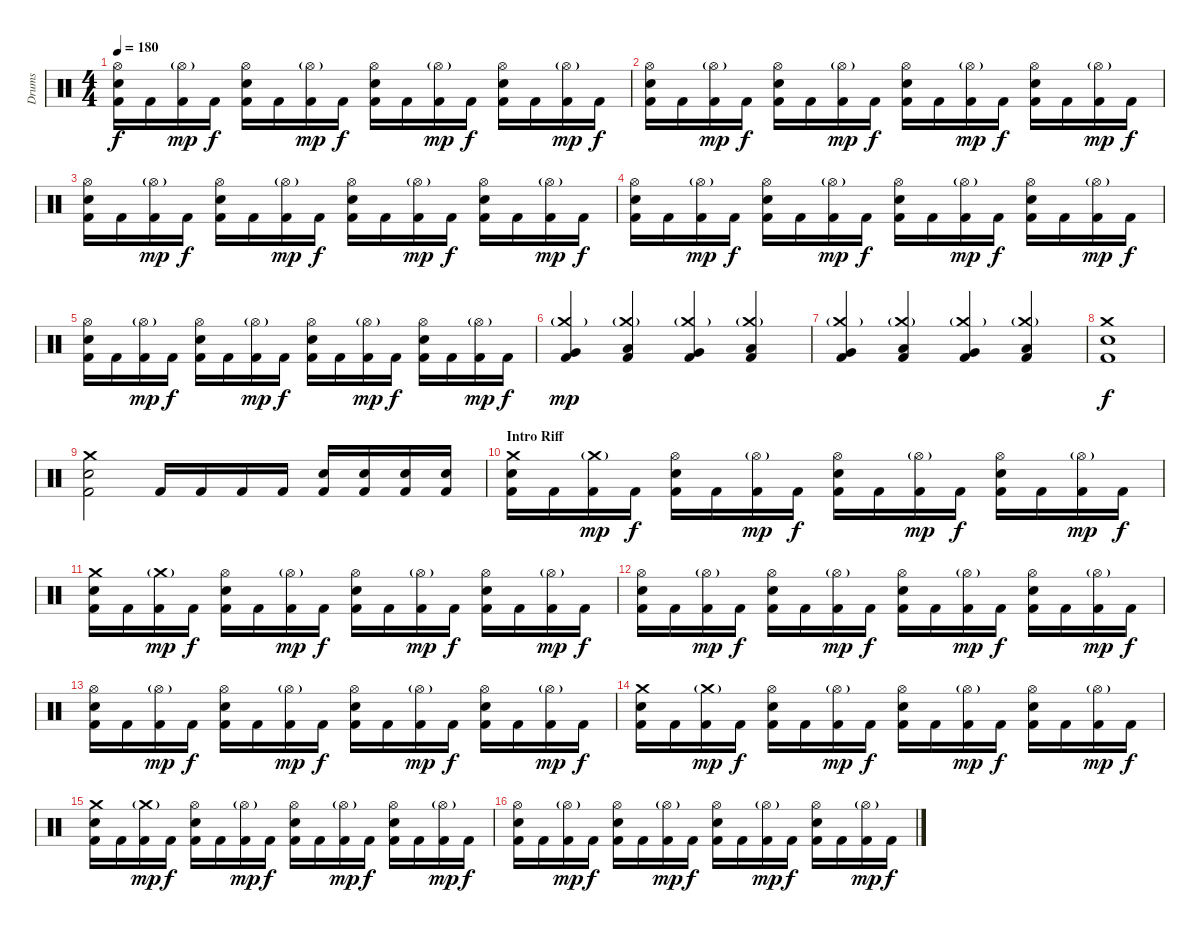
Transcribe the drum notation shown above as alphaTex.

\track ("Drums" "Drums") {instrument percussion}
\staff {score}
\articulation defaults
\ts (4 4)
\tempo 180
\clef neutral
\ks c
("Hi-Hat (open)" "Electric Snare (hit)" "Kick (hit) 2").16{dy f} "Kick (hit) 2".16 ("Hi-Hat (open)"{g} "Kick (hit) 2").16{dy mp} "Kick (hit) 2".16{dy f} ("Hi-Hat (open)" "Electric Snare (hit)" "Kick (hit) 2").16 "Kick (hit) 2".16 ("Hi-Hat (open)"{g} "Kick (hit) 2").16{dy mp} "Kick (hit) 2".16{dy f} ("Hi-Hat (open)" "Electric Snare (hit)" "Kick (hit) 2").16 "Kick (hit) 2".16 ("Hi-Hat (open)"{g} "Kick (hit) 2").16{dy mp} "Kick (hit) 2".16{dy f} ("Hi-Hat (open)" "Electric Snare (hit)" "Kick (hit) 2").16 "Kick (hit) 2".16 ("Hi-Hat (open)"{g} "Kick (hit) 2").16{dy mp} "Kick (hit) 2".16{dy f} |
("Hi-Hat (open)" "Electric Snare (hit)" "Kick (hit) 2").16 "Kick (hit) 2".16 ("Hi-Hat (open)"{g} "Kick (hit) 2").16{dy mp} "Kick (hit) 2".16{dy f} ("Hi-Hat (open)" "Electric Snare (hit)" "Kick (hit) 2").16 "Kick (hit) 2".16 ("Hi-Hat (open)"{g} "Kick (hit) 2").16{dy mp} "Kick (hit) 2".16{dy f} ("Hi-Hat (open)" "Electric Snare (hit)" "Kick (hit) 2").16 "Kick (hit) 2".16 ("Hi-Hat (open)"{g} "Kick (hit) 2").16{dy mp} "Kick (hit) 2".16{dy f} ("Hi-Hat (open)" "Electric Snare (hit)" "Kick (hit) 2").16 "Kick (hit) 2".16 ("Hi-Hat (open)"{g} "Kick (hit) 2").16{dy mp} "Kick (hit) 2".16{dy f} |
("Hi-Hat (open)" "Electric Snare (hit)" "Kick (hit) 2").16 "Kick (hit) 2".16 ("Hi-Hat (open)"{g} "Kick (hit) 2").16{dy mp} "Kick (hit) 2".16{dy f} ("Hi-Hat (open)" "Electric Snare (hit)" "Kick (hit) 2").16 "Kick (hit) 2".16 ("Hi-Hat (open)"{g} "Kick (hit) 2").16{dy mp} "Kick (hit) 2".16{dy f} ("Hi-Hat (open)" "Electric Snare (hit)" "Kick (hit) 2").16 "Kick (hit) 2".16 ("Hi-Hat (open)"{g} "Kick (hit) 2").16{dy mp} "Kick (hit) 2".16{dy f} ("Hi-Hat (open)" "Electric Snare (hit)" "Kick (hit) 2").16 "Kick (hit) 2".16 ("Hi-Hat (open)"{g} "Kick (hit) 2").16{dy mp} "Kick (hit) 2".16{dy f} |
("Hi-Hat (open)" "Electric Snare (hit)" "Kick (hit) 2").16 "Kick (hit) 2".16 ("Hi-Hat (open)"{g} "Kick (hit) 2").16{dy mp} "Kick (hit) 2".16{dy f} ("Hi-Hat (open)" "Electric Snare (hit)" "Kick (hit) 2").16 "Kick (hit) 2".16 ("Hi-Hat (open)"{g} "Kick (hit) 2").16{dy mp} "Kick (hit) 2".16{dy f} ("Hi-Hat (open)" "Electric Snare (hit)" "Kick (hit) 2").16 "Kick (hit) 2".16 ("Hi-Hat (open)"{g} "Kick (hit) 2").16{dy mp} "Kick (hit) 2".16{dy f} ("Hi-Hat (open)" "Electric Snare (hit)" "Kick (hit) 2").16 "Kick (hit) 2".16 ("Hi-Hat (open)"{g} "Kick (hit) 2").16{dy mp} "Kick (hit) 2".16{dy f} |
("Hi-Hat (open)" "Electric Snare (hit)" "Kick (hit) 2").16 "Kick (hit) 2".16 ("Hi-Hat (open)"{g} "Kick (hit) 2").16{dy mp} "Kick (hit) 2".16{dy f} ("Hi-Hat (open)" "Electric Snare (hit)" "Kick (hit) 2").16 "Kick (hit) 2".16 ("Hi-Hat (open)"{g} "Kick (hit) 2").16{dy mp} "Kick (hit) 2".16{dy f} ("Hi-Hat (open)" "Electric Snare (hit)" "Kick (hit) 2").16 "Kick (hit) 2".16 ("Hi-Hat (open)"{g} "Kick (hit) 2").16{dy mp} "Kick (hit) 2".16{dy f} ("Hi-Hat (open)" "Electric Snare (hit)" "Kick (hit) 2").16 "Kick (hit) 2".16 ("Hi-Hat (open)"{g} "Kick (hit) 2").16{dy mp} "Kick (hit) 2".16{dy f} |
("Crash medium (hit)"{g} "Very Low Tom (hit)" "Kick (hit) 2").4{dy mp} ("Crash medium (hit)"{g} "Low Floor Tom (hit)" "Kick (hit) 2").4 ("Crash medium (hit)"{g} "Very Low Tom (hit)" "Kick (hit) 2").4 ("Crash medium (hit)"{g} "Low Floor Tom (hit)" "Kick (hit) 2").4 |
("Crash medium (hit)"{g} "Very Low Tom (hit)" "Kick (hit) 2").4 ("Crash medium (hit)"{g} "Low Floor Tom (hit)" "Kick (hit) 2").4 ("Crash medium (hit)"{g} "Very Low Tom (hit)" "Kick (hit) 2").4 ("Crash medium (hit)"{g} "Low Floor Tom (hit)" "Kick (hit) 2").4 |
("Crash medium (hit)" "Electric Snare (hit)" "Kick (hit) 2").1{dy f} |
("Crash medium (hit)" "Electric Snare (hit)" "Kick (hit) 2").2 "Kick (hit) 2".16 "Kick (hit) 2".16 "Kick (hit) 2".16 "Kick (hit) 2".16 ("Electric Snare (hit)" "Kick (hit) 2").16 ("Electric Snare (hit)" "Kick (hit) 2").16 ("Electric Snare (hit)" "Kick (hit) 2").16 ("Electric Snare (hit)" "Kick (hit) 2").16 |
\section ("" "Intro Riff")
("Crash medium (hit)" "Electric Snare (hit)" "Kick (hit) 2").16 "Kick (hit) 2".16 ("Crash medium (hit)"{g} "Kick (hit) 2").16{dy mp} "Kick (hit) 2".16{dy f} ("Hi-Hat (open)" "Electric Snare (hit)" "Kick (hit) 2").16 "Kick (hit) 2".16 ("Hi-Hat (open)"{g} "Kick (hit) 2").16{dy mp} "Kick (hit) 2".16{dy f} ("Hi-Hat (open)" "Electric Snare (hit)" "Kick (hit) 2").16 "Kick (hit) 2".16 ("Hi-Hat (open)"{g} "Kick (hit) 2").16{dy mp} "Kick (hit) 2".16{dy f} ("Hi-Hat (open)" "Electric Snare (hit)" "Kick (hit) 2").16 "Kick (hit) 2".16 ("Hi-Hat (open)"{g} "Kick (hit) 2").16{dy mp} "Kick (hit) 2".16{dy f} |
("Crash medium (hit)" "Electric Snare (hit)" "Kick (hit) 2").16 "Kick (hit) 2".16 ("Crash medium (hit)"{g} "Kick (hit) 2").16{dy mp} "Kick (hit) 2".16{dy f} ("Hi-Hat (open)" "Electric Snare (hit)" "Kick (hit) 2").16 "Kick (hit) 2".16 ("Hi-Hat (open)"{g} "Kick (hit) 2").16{dy mp} "Kick (hit) 2".16{dy f} ("Hi-Hat (open)" "Electric Snare (hit)" "Kick (hit) 2").16 "Kick (hit) 2".16 ("Hi-Hat (open)"{g} "Kick (hit) 2").16{dy mp} "Kick (hit) 2".16{dy f} ("Hi-Hat (open)" "Electric Snare (hit)" "Kick (hit) 2").16 "Kick (hit) 2".16 ("Hi-Hat (open)"{g} "Kick (hit) 2").16{dy mp} "Kick (hit) 2".16{dy f} |
("Hi-Hat (open)" "Electric Snare (hit)" "Kick (hit) 2").16 "Kick (hit) 2".16 ("Hi-Hat (open)"{g} "Kick (hit) 2").16{dy mp} "Kick (hit) 2".16{dy f} ("Hi-Hat (open)" "Electric Snare (hit)" "Kick (hit) 2").16 "Kick (hit) 2".16 ("Hi-Hat (open)"{g} "Kick (hit) 2").16{dy mp} "Kick (hit) 2".16{dy f} ("Hi-Hat (open)" "Electric Snare (hit)" "Kick (hit) 2").16 "Kick (hit) 2".16 ("Hi-Hat (open)"{g} "Kick (hit) 2").16{dy mp} "Kick (hit) 2".16{dy f} ("Hi-Hat (open)" "Electric Snare (hit)" "Kick (hit) 2").16 "Kick (hit) 2".16 ("Hi-Hat (open)"{g} "Kick (hit) 2").16{dy mp} "Kick (hit) 2".16{dy f} |
("Hi-Hat (open)" "Electric Snare (hit)" "Kick (hit) 2").16 "Kick (hit) 2".16 ("Hi-Hat (open)"{g} "Kick (hit) 2").16{dy mp} "Kick (hit) 2".16{dy f} ("Hi-Hat (open)" "Electric Snare (hit)" "Kick (hit) 2").16 "Kick (hit) 2".16 ("Hi-Hat (open)"{g} "Kick (hit) 2").16{dy mp} "Kick (hit) 2".16{dy f} ("Hi-Hat (open)" "Electric Snare (hit)" "Kick (hit) 2").16 "Kick (hit) 2".16 ("Hi-Hat (open)"{g} "Kick (hit) 2").16{dy mp} "Kick (hit) 2".16{dy f} ("Hi-Hat (open)" "Electric Snare (hit)" "Kick (hit) 2").16 "Kick (hit) 2".16 ("Hi-Hat (open)"{g} "Kick (hit) 2").16{dy mp} "Kick (hit) 2".16{dy f} |
("Crash medium (hit)" "Electric Snare (hit)" "Kick (hit) 2").16 "Kick (hit) 2".16 ("Crash medium (hit)"{g} "Kick (hit) 2").16{dy mp} "Kick (hit) 2".16{dy f} ("Hi-Hat (open)" "Electric Snare (hit)" "Kick (hit) 2").16 "Kick (hit) 2".16 ("Hi-Hat (open)"{g} "Kick (hit) 2").16{dy mp} "Kick (hit) 2".16{dy f} ("Hi-Hat (open)" "Electric Snare (hit)" "Kick (hit) 2").16 "Kick (hit) 2".16 ("Hi-Hat (open)"{g} "Kick (hit) 2").16{dy mp} "Kick (hit) 2".16{dy f} ("Hi-Hat (open)" "Electric Snare (hit)" "Kick (hit) 2").16 "Kick (hit) 2".16 ("Hi-Hat (open)"{g} "Kick (hit) 2").16{dy mp} "Kick (hit) 2".16{dy f} |
("Crash medium (hit)" "Electric Snare (hit)" "Kick (hit) 2").16 "Kick (hit) 2".16 ("Crash medium (hit)"{g} "Kick (hit) 2").16{dy mp} "Kick (hit) 2".16{dy f} ("Hi-Hat (open)" "Electric Snare (hit)" "Kick (hit) 2").16 "Kick (hit) 2".16 ("Hi-Hat (open)"{g} "Kick (hit) 2").16{dy mp} "Kick (hit) 2".16{dy f} ("Hi-Hat (open)" "Electric Snare (hit)" "Kick (hit) 2").16 "Kick (hit) 2".16 ("Hi-Hat (open)"{g} "Kick (hit) 2").16{dy mp} "Kick (hit) 2".16{dy f} ("Hi-Hat (open)" "Electric Snare (hit)" "Kick (hit) 2").16 "Kick (hit) 2".16 ("Hi-Hat (open)"{g} "Kick (hit) 2").16{dy mp} "Kick (hit) 2".16{dy f} |
("Hi-Hat (open)" "Electric Snare (hit)" "Kick (hit) 2").16 "Kick (hit) 2".16 ("Hi-Hat (open)"{g} "Kick (hit) 2").16{dy mp} "Kick (hit) 2".16{dy f} ("Hi-Hat (open)" "Electric Snare (hit)" "Kick (hit) 2").16 "Kick (hit) 2".16 ("Hi-Hat (open)"{g} "Kick (hit) 2").16{dy mp} "Kick (hit) 2".16{dy f} ("Hi-Hat (open)" "Electric Snare (hit)" "Kick (hit) 2").16 "Kick (hit) 2".16 ("Hi-Hat (open)"{g} "Kick (hit) 2").16{dy mp} "Kick (hit) 2".16{dy f} ("Hi-Hat (open)" "Electric Snare (hit)" "Kick (hit) 2").16 "Kick (hit) 2".16 ("Hi-Hat (open)"{g} "Kick (hit) 2").16{dy mp} "Kick (hit) 2".16{dy f}
